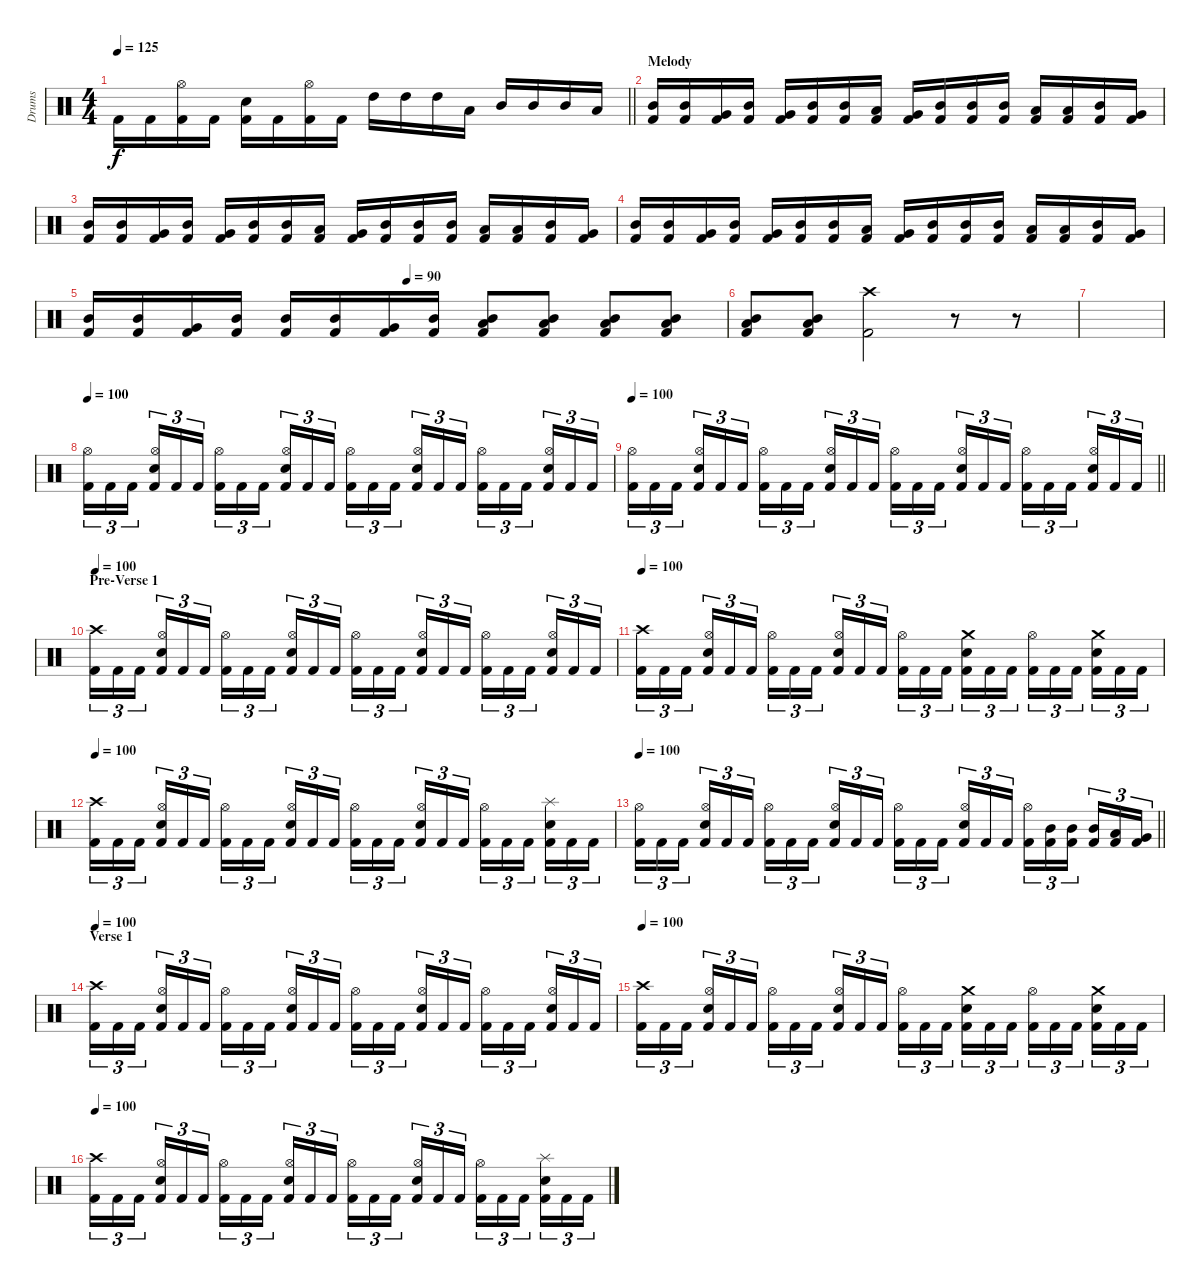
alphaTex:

\track ("Drums" "Drums") {instrument percussion}
\staff {score}
\articulation defaults
\ts (4 4)
\tempo 125
\clef neutral
\barLineRight lightlight
\ks c "Kick (hit) 2".16{dy f} "Kick (hit) 2".16
("Hi-Hat (open)" "Kick (hit) 2").16 "Kick (hit) 2".16 ("Electric Snare (hit)" "Kick (hit) 2").16 "Kick (hit) 2".16 ("Hi-Hat (open)" "Kick (hit) 2").16 "Kick (hit) 2".16 "High Tom (hit)".16 "High Tom (hit)".16 "High Tom (hit)".16 "Low Tom (hit)".16 "Mid Tom (hit)".16 "Mid Tom (hit)".16 "Mid Tom (hit)".16 "Low Tom (hit)".16 |
\section ("" "Melody")
("Mid Tom (hit)" "Kick (hit) 2").16 ("Mid Tom (hit)" "Kick (hit) 2").16 ("Very Low Tom (hit)" "Kick (hit) 2").16 ("Mid Tom (hit)" "Kick (hit) 2").16 ("Very Low Tom (hit)" "Kick (hit) 2").16 ("Mid Tom (hit)" "Kick (hit) 2").16 ("Mid Tom (hit)" "Kick (hit) 2").16 ("Low Tom (hit)" "Kick (hit) 2").16 ("Very Low Tom (hit)" "Kick (hit) 2").16 ("Mid Tom (hit)" "Kick (hit) 2").16 ("Mid Tom (hit)" "Kick (hit) 2").16 ("Mid Tom (hit)" "Kick (hit) 2").16 ("Low Tom (hit)" "Kick (hit) 2").16 ("Low Tom (hit)" "Kick (hit) 2").16 ("Mid Tom (hit)" "Kick (hit) 2").16 ("Very Low Tom (hit)" "Kick (hit) 2").16 |
("Mid Tom (hit)" "Kick (hit) 2").16 ("Mid Tom (hit)" "Kick (hit) 2").16 ("Very Low Tom (hit)" "Kick (hit) 2").16 ("Mid Tom (hit)" "Kick (hit) 2").16 ("Very Low Tom (hit)" "Kick (hit) 2").16 ("Mid Tom (hit)" "Kick (hit) 2").16 ("Mid Tom (hit)" "Kick (hit) 2").16 ("Low Tom (hit)" "Kick (hit) 2").16 ("Very Low Tom (hit)" "Kick (hit) 2").16 ("Mid Tom (hit)" "Kick (hit) 2").16 ("Mid Tom (hit)" "Kick (hit) 2").16 ("Mid Tom (hit)" "Kick (hit) 2").16 ("Low Tom (hit)" "Kick (hit) 2").16 ("Low Tom (hit)" "Kick (hit) 2").16 ("Mid Tom (hit)" "Kick (hit) 2").16 ("Very Low Tom (hit)" "Kick (hit) 2").16 |
("Mid Tom (hit)" "Kick (hit) 2").16 ("Mid Tom (hit)" "Kick (hit) 2").16 ("Very Low Tom (hit)" "Kick (hit) 2").16 ("Mid Tom (hit)" "Kick (hit) 2").16 ("Very Low Tom (hit)" "Kick (hit) 2").16 ("Mid Tom (hit)" "Kick (hit) 2").16 ("Mid Tom (hit)" "Kick (hit) 2").16 ("Low Tom (hit)" "Kick (hit) 2").16 ("Very Low Tom (hit)" "Kick (hit) 2").16 ("Mid Tom (hit)" "Kick (hit) 2").16 ("Mid Tom (hit)" "Kick (hit) 2").16 ("Mid Tom (hit)" "Kick (hit) 2").16 ("Low Tom (hit)" "Kick (hit) 2").16 ("Low Tom (hit)" "Kick (hit) 2").16 ("Mid Tom (hit)" "Kick (hit) 2").16 ("Very Low Tom (hit)" "Kick (hit) 2").16 |
\tempo (90 0.5)
("Mid Tom (hit)" "Kick (hit) 2").16 ("Mid Tom (hit)" "Kick (hit) 2").16 ("Very Low Tom (hit)" "Kick (hit) 2").16 ("Mid Tom (hit)" "Kick (hit) 2").16 ("Mid Tom (hit)" "Kick (hit) 2").16 ("Mid Tom (hit)" "Kick (hit) 2").16 ("Very Low Tom (hit)" "Kick (hit) 2").16 ("Mid Tom (hit)" "Kick (hit) 2").16 ("Mid Tom (hit)" "Low Tom (hit)" "Kick (hit) 2").8 ("Mid Tom (hit)" "Low Tom (hit)" "Kick (hit) 2").8 ("Mid Tom (hit)" "Low Tom (hit)" "Kick (hit) 2").8 ("Mid Tom (hit)" "Low Tom (hit)" "Kick (hit) 2").8 |
("Mid Tom (hit)" "Low Tom (hit)" "Kick (hit) 2").8 ("Mid Tom (hit)" "Low Tom (hit)" "Kick (hit) 2").8 ("Crash high (hit)" "Kick (hit) 2").2 r.8 r.8 |
|
\tempo 100
("Hi-Hat (open)" "Kick (hit) 2").16{tu (3 2)} "Kick (hit) 2".16{tu (3 2)} "Kick (hit) 2".16{tu (3 2) beam splitsecondary} ("Hi-Hat (open)" "Electric Snare (hit)" "Kick (hit) 2").16{tu (3 2)} "Kick (hit) 2".16{tu (3 2)} "Kick (hit) 2".16{tu (3 2)} ("Hi-Hat (open)" "Kick (hit) 2").16{tu (3 2)} "Kick (hit) 2".16{tu (3 2)} "Kick (hit) 2".16{tu (3 2) beam splitsecondary} ("Hi-Hat (open)" "Electric Snare (hit)" "Kick (hit) 2").16{tu (3 2)} "Kick (hit) 2".16{tu (3 2)} "Kick (hit) 2".16{tu (3 2)} ("Hi-Hat (open)" "Kick (hit) 2").16{tu (3 2)} "Kick (hit) 2".16{tu (3 2)} "Kick (hit) 2".16{tu (3 2) beam splitsecondary} ("Hi-Hat (open)" "Electric Snare (hit)" "Kick (hit) 2").16{tu (3 2)} "Kick (hit) 2".16{tu (3 2)} "Kick (hit) 2".16{tu (3 2)} ("Hi-Hat (open)" "Kick (hit) 2").16{tu (3 2)} "Kick (hit) 2".16{tu (3 2)} "Kick (hit) 2".16{tu (3 2) beam splitsecondary} ("Hi-Hat (open)" "Electric Snare (hit)" "Kick (hit) 2").16{tu (3 2)} "Kick (hit) 2".16{tu (3 2)} "Kick (hit) 2".16{tu (3 2)} |
\tempo 100
\barLineRight lightlight
("Hi-Hat (open)" "Kick (hit) 2").16{tu (3 2)} "Kick (hit) 2".16{tu (3 2)} "Kick (hit) 2".16{tu (3 2) beam splitsecondary} ("Hi-Hat (open)" "Electric Snare (hit)" "Kick (hit) 2").16{tu (3 2)} "Kick (hit) 2".16{tu (3 2)} "Kick (hit) 2".16{tu (3 2)} ("Hi-Hat (open)" "Kick (hit) 2").16{tu (3 2)} "Kick (hit) 2".16{tu (3 2)} "Kick (hit) 2".16{tu (3 2) beam splitsecondary} ("Hi-Hat (open)" "Electric Snare (hit)" "Kick (hit) 2").16{tu (3 2)} "Kick (hit) 2".16{tu (3 2)} "Kick (hit) 2".16{tu (3 2)} ("Hi-Hat (open)" "Kick (hit) 2").16{tu (3 2)} "Kick (hit) 2".16{tu (3 2)} "Kick (hit) 2".16{tu (3 2) beam splitsecondary} ("Hi-Hat (open)" "Electric Snare (hit)" "Kick (hit) 2").16{tu (3 2)} "Kick (hit) 2".16{tu (3 2)} "Kick (hit) 2".16{tu (3 2)} ("Hi-Hat (open)" "Kick (hit) 2").16{tu (3 2)} "Kick (hit) 2".16{tu (3 2)} "Kick (hit) 2".16{tu (3 2) beam splitsecondary} ("Hi-Hat (open)" "Electric Snare (hit)" "Kick (hit) 2").16{tu (3 2)} "Kick (hit) 2".16{tu (3 2)} "Kick (hit) 2".16{tu (3 2)} |
\section ("" "Pre-Verse 1")
\tempo 100
("Crash high (hit)" "Kick (hit) 2").16{tu (3 2)} "Kick (hit) 2".16{tu (3 2)} "Kick (hit) 2".16{tu (3 2) beam splitsecondary} ("Hi-Hat (open)" "Electric Snare (hit)" "Kick (hit) 2").16{tu (3 2)} "Kick (hit) 2".16{tu (3 2)} "Kick (hit) 2".16{tu (3 2)} ("Hi-Hat (open)" "Kick (hit) 2").16{tu (3 2)} "Kick (hit) 2".16{tu (3 2)} "Kick (hit) 2".16{tu (3 2) beam splitsecondary} ("Hi-Hat (open)" "Electric Snare (hit)" "Kick (hit) 2").16{tu (3 2)} "Kick (hit) 2".16{tu (3 2)} "Kick (hit) 2".16{tu (3 2)} ("Hi-Hat (open)" "Kick (hit) 2").16{tu (3 2)} "Kick (hit) 2".16{tu (3 2)} "Kick (hit) 2".16{tu (3 2) beam splitsecondary} ("Hi-Hat (open)" "Electric Snare (hit)" "Kick (hit) 2").16{tu (3 2)} "Kick (hit) 2".16{tu (3 2)} "Kick (hit) 2".16{tu (3 2)} ("Hi-Hat (open)" "Kick (hit) 2").16{tu (3 2)} "Kick (hit) 2".16{tu (3 2)} "Kick (hit) 2".16{tu (3 2) beam splitsecondary} ("Hi-Hat (open)" "Electric Snare (hit)" "Kick (hit) 2").16{tu (3 2)} "Kick (hit) 2".16{tu (3 2)} "Kick (hit) 2".16{tu (3 2)} |
\tempo 100
("Crash high (hit)" "Kick (hit) 2").16{tu (3 2)} "Kick (hit) 2".16{tu (3 2)} "Kick (hit) 2".16{tu (3 2) beam splitsecondary} ("Hi-Hat (open)" "Electric Snare (hit)" "Kick (hit) 2").16{tu (3 2)} "Kick (hit) 2".16{tu (3 2)} "Kick (hit) 2".16{tu (3 2)} ("Hi-Hat (open)" "Kick (hit) 2").16{tu (3 2)} "Kick (hit) 2".16{tu (3 2)} "Kick (hit) 2".16{tu (3 2) beam splitsecondary} ("Hi-Hat (open)" "Electric Snare (hit)" "Kick (hit) 2").16{tu (3 2)} "Kick (hit) 2".16{tu (3 2)} "Kick (hit) 2".16{tu (3 2)} ("Hi-Hat (open)" "Kick (hit) 2").16{tu (3 2)} "Kick (hit) 2".16{tu (3 2)} "Kick (hit) 2".16{tu (3 2) beam splitsecondary} ("Crash medium (hit)" "Electric Snare (hit)" "Kick (hit) 2").16{tu (3 2)} "Kick (hit) 2".16{tu (3 2)} "Kick (hit) 2".16{tu (3 2)} ("Hi-Hat (open)" "Kick (hit) 2").16{tu (3 2)} "Kick (hit) 2".16{tu (3 2)} "Kick (hit) 2".16{tu (3 2) beam splitsecondary} ("Crash medium (hit)" "Electric Snare (hit)" "Kick (hit) 2").16{tu (3 2)} "Kick (hit) 2".16{tu (3 2)} "Kick (hit) 2".16{tu (3 2)} |
\tempo 100
("Crash high (hit)" "Kick (hit) 2").16{tu (3 2)} "Kick (hit) 2".16{tu (3 2)} "Kick (hit) 2".16{tu (3 2) beam splitsecondary} ("Hi-Hat (open)" "Electric Snare (hit)" "Kick (hit) 2").16{tu (3 2)} "Kick (hit) 2".16{tu (3 2)} "Kick (hit) 2".16{tu (3 2)} ("Hi-Hat (open)" "Kick (hit) 2").16{tu (3 2)} "Kick (hit) 2".16{tu (3 2)} "Kick (hit) 2".16{tu (3 2) beam splitsecondary} ("Hi-Hat (open)" "Electric Snare (hit)" "Kick (hit) 2").16{tu (3 2)} "Kick (hit) 2".16{tu (3 2)} "Kick (hit) 2".16{tu (3 2)} ("Hi-Hat (open)" "Kick (hit) 2").16{tu (3 2)} "Kick (hit) 2".16{tu (3 2)} "Kick (hit) 2".16{tu (3 2) beam splitsecondary} ("Hi-Hat (open)" "Electric Snare (hit)" "Kick (hit) 2").16{tu (3 2)} "Kick (hit) 2".16{tu (3 2)} "Kick (hit) 2".16{tu (3 2)} ("Hi-Hat (open)" "Kick (hit) 2").16{tu (3 2)} "Kick (hit) 2".16{tu (3 2)} "Kick (hit) 2".16{tu (3 2) beam splitsecondary} ("Splash (hit)" "Electric Snare (hit)" "Kick (hit) 2").16{tu (3 2)} "Kick (hit) 2".16{tu (3 2)} "Kick (hit) 2".16{tu (3 2)} |
\tempo 100
\barLineRight lightlight
("Hi-Hat (open)" "Kick (hit) 2").16{tu (3 2)} "Kick (hit) 2".16{tu (3 2)} "Kick (hit) 2".16{tu (3 2) beam splitsecondary} ("Hi-Hat (open)" "Electric Snare (hit)" "Kick (hit) 2").16{tu (3 2)} "Kick (hit) 2".16{tu (3 2)} "Kick (hit) 2".16{tu (3 2)} ("Hi-Hat (open)" "Kick (hit) 2").16{tu (3 2)} "Kick (hit) 2".16{tu (3 2)} "Kick (hit) 2".16{tu (3 2) beam splitsecondary} ("Hi-Hat (open)" "Electric Snare (hit)" "Kick (hit) 2").16{tu (3 2)} "Kick (hit) 2".16{tu (3 2)} "Kick (hit) 2".16{tu (3 2)} ("Hi-Hat (open)" "Kick (hit) 2").16{tu (3 2)} "Kick (hit) 2".16{tu (3 2)} "Kick (hit) 2".16{tu (3 2) beam splitsecondary} ("Hi-Hat (open)" "Electric Snare (hit)" "Kick (hit) 2").16{tu (3 2)} "Kick (hit) 2".16{tu (3 2)} "Kick (hit) 2".16{tu (3 2)} ("Hi-Hat (open)" "Kick (hit) 2").16{tu (3 2)} ("Mid Tom (hit)" "Kick (hit) 2").16{tu (3 2)} ("Mid Tom (hit)" "Kick (hit) 2").16{tu (3 2) beam splitsecondary} ("Mid Tom (hit)" "Kick (hit) 2").16{tu (3 2)} ("Low Tom (hit)" "Kick (hit) 2").16{tu (3 2)} ("Very Low Tom (hit)" "Kick (hit) 2").16{tu (3 2)} |
\section ("" "Verse 1")
\tempo 100
("Crash high (hit)" "Kick (hit) 2").16{tu (3 2)} "Kick (hit) 2".16{tu (3 2)} "Kick (hit) 2".16{tu (3 2) beam splitsecondary} ("Hi-Hat (open)" "Electric Snare (hit)" "Kick (hit) 2").16{tu (3 2)} "Kick (hit) 2".16{tu (3 2)} "Kick (hit) 2".16{tu (3 2)} ("Hi-Hat (open)" "Kick (hit) 2").16{tu (3 2)} "Kick (hit) 2".16{tu (3 2)} "Kick (hit) 2".16{tu (3 2) beam splitsecondary} ("Hi-Hat (open)" "Electric Snare (hit)" "Kick (hit) 2").16{tu (3 2)} "Kick (hit) 2".16{tu (3 2)} "Kick (hit) 2".16{tu (3 2)} ("Hi-Hat (open)" "Kick (hit) 2").16{tu (3 2)} "Kick (hit) 2".16{tu (3 2)} "Kick (hit) 2".16{tu (3 2) beam splitsecondary} ("Hi-Hat (open)" "Electric Snare (hit)" "Kick (hit) 2").16{tu (3 2)} "Kick (hit) 2".16{tu (3 2)} "Kick (hit) 2".16{tu (3 2)} ("Hi-Hat (open)" "Kick (hit) 2").16{tu (3 2)} "Kick (hit) 2".16{tu (3 2)} "Kick (hit) 2".16{tu (3 2) beam splitsecondary} ("Hi-Hat (open)" "Electric Snare (hit)" "Kick (hit) 2").16{tu (3 2)} "Kick (hit) 2".16{tu (3 2)} "Kick (hit) 2".16{tu (3 2)} |
\tempo 100
("Crash high (hit)" "Kick (hit) 2").16{tu (3 2)} "Kick (hit) 2".16{tu (3 2)} "Kick (hit) 2".16{tu (3 2) beam splitsecondary} ("Hi-Hat (open)" "Electric Snare (hit)" "Kick (hit) 2").16{tu (3 2)} "Kick (hit) 2".16{tu (3 2)} "Kick (hit) 2".16{tu (3 2)} ("Hi-Hat (open)" "Kick (hit) 2").16{tu (3 2)} "Kick (hit) 2".16{tu (3 2)} "Kick (hit) 2".16{tu (3 2) beam splitsecondary} ("Hi-Hat (open)" "Electric Snare (hit)" "Kick (hit) 2").16{tu (3 2)} "Kick (hit) 2".16{tu (3 2)} "Kick (hit) 2".16{tu (3 2)} ("Hi-Hat (open)" "Kick (hit) 2").16{tu (3 2)} "Kick (hit) 2".16{tu (3 2)} "Kick (hit) 2".16{tu (3 2) beam splitsecondary} ("Crash medium (hit)" "Electric Snare (hit)" "Kick (hit) 2").16{tu (3 2)} "Kick (hit) 2".16{tu (3 2)} "Kick (hit) 2".16{tu (3 2)} ("Hi-Hat (open)" "Kick (hit) 2").16{tu (3 2)} "Kick (hit) 2".16{tu (3 2)} "Kick (hit) 2".16{tu (3 2) beam splitsecondary} ("Crash medium (hit)" "Electric Snare (hit)" "Kick (hit) 2").16{tu (3 2)} "Kick (hit) 2".16{tu (3 2)} "Kick (hit) 2".16{tu (3 2)} |
\tempo 100
("Crash high (hit)" "Kick (hit) 2").16{tu (3 2)} "Kick (hit) 2".16{tu (3 2)} "Kick (hit) 2".16{tu (3 2) beam splitsecondary} ("Hi-Hat (open)" "Electric Snare (hit)" "Kick (hit) 2").16{tu (3 2)} "Kick (hit) 2".16{tu (3 2)} "Kick (hit) 2".16{tu (3 2)} ("Hi-Hat (open)" "Kick (hit) 2").16{tu (3 2)} "Kick (hit) 2".16{tu (3 2)} "Kick (hit) 2".16{tu (3 2) beam splitsecondary} ("Hi-Hat (open)" "Electric Snare (hit)" "Kick (hit) 2").16{tu (3 2)} "Kick (hit) 2".16{tu (3 2)} "Kick (hit) 2".16{tu (3 2)} ("Hi-Hat (open)" "Kick (hit) 2").16{tu (3 2)} "Kick (hit) 2".16{tu (3 2)} "Kick (hit) 2".16{tu (3 2) beam splitsecondary} ("Hi-Hat (open)" "Electric Snare (hit)" "Kick (hit) 2").16{tu (3 2)} "Kick (hit) 2".16{tu (3 2)} "Kick (hit) 2".16{tu (3 2)} ("Hi-Hat (open)" "Kick (hit) 2").16{tu (3 2)} "Kick (hit) 2".16{tu (3 2)} "Kick (hit) 2".16{tu (3 2) beam splitsecondary} ("Splash (hit)" "Electric Snare (hit)" "Kick (hit) 2").16{tu (3 2)} "Kick (hit) 2".16{tu (3 2)} "Kick (hit) 2".16{tu (3 2)}
